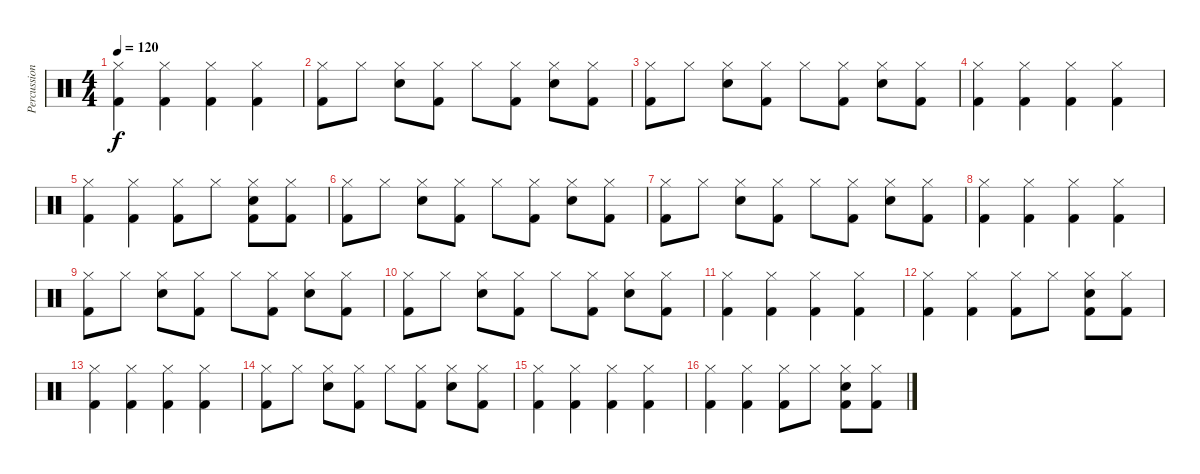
\track ("Percussion" "Percussion") {instrument percussion}
\staff {score}
\articulation defaults
\ts (4 4)
\tempo 120
\clef neutral
\ks c
("Kick (hit) 2" "Hi-Hat (closed)").4{dy f} ("Kick (hit) 2" "Hi-Hat (closed)").4 ("Kick (hit) 2" "Hi-Hat (closed)").4 ("Kick (hit) 2" "Hi-Hat (closed)").4 |
("Kick (hit) 2" "Hi-Hat (closed)").8 "Hi-Hat (closed)".8 ("Snare (hit) 2" "Hi-Hat (closed)").8 ("Kick (hit) 2" "Hi-Hat (closed)").8 "Hi-Hat (closed)".8 ("Kick (hit) 2" "Hi-Hat (closed)").8 ("Snare (hit) 2" "Hi-Hat (closed)").8 ("Kick (hit) 2" "Hi-Hat (closed)").8 |
("Kick (hit) 2" "Hi-Hat (closed)").8 "Hi-Hat (closed)".8 ("Snare (hit) 2" "Hi-Hat (closed)").8 ("Kick (hit) 2" "Hi-Hat (closed)").8 "Hi-Hat (closed)".8 ("Kick (hit) 2" "Hi-Hat (closed)").8 ("Snare (hit) 2" "Hi-Hat (closed)").8 ("Kick (hit) 2" "Hi-Hat (closed)").8 |
("Kick (hit) 2" "Hi-Hat (closed)").4 ("Kick (hit) 2" "Hi-Hat (closed)").4 ("Kick (hit) 2" "Hi-Hat (closed)").4 ("Kick (hit) 2" "Hi-Hat (closed)").4 |
("Kick (hit) 2" "Hi-Hat (closed)").4 ("Kick (hit) 2" "Hi-Hat (closed)").4 ("Kick (hit) 2" "Hi-Hat (closed)").8 "Hi-Hat (closed)".8 ("Kick (hit) 2" "Snare (hit) 2" "Hi-Hat (closed)").8 ("Kick (hit) 2" "Hi-Hat (closed)").8 |
("Kick (hit) 2" "Hi-Hat (closed)").8 "Hi-Hat (closed)".8 ("Snare (hit) 2" "Hi-Hat (closed)").8 ("Kick (hit) 2" "Hi-Hat (closed)").8 "Hi-Hat (closed)".8 ("Kick (hit) 2" "Hi-Hat (closed)").8 ("Snare (hit) 2" "Hi-Hat (closed)").8 ("Kick (hit) 2" "Hi-Hat (closed)").8 |
("Kick (hit) 2" "Hi-Hat (closed)").8 "Hi-Hat (closed)".8 ("Snare (hit) 2" "Hi-Hat (closed)").8 ("Kick (hit) 2" "Hi-Hat (closed)").8 "Hi-Hat (closed)".8 ("Kick (hit) 2" "Hi-Hat (closed)").8 ("Snare (hit) 2" "Hi-Hat (closed)").8 ("Kick (hit) 2" "Hi-Hat (closed)").8 |
("Kick (hit) 2" "Hi-Hat (closed)").4 ("Kick (hit) 2" "Hi-Hat (closed)").4 ("Kick (hit) 2" "Hi-Hat (closed)").4 ("Kick (hit) 2" "Hi-Hat (closed)").4 |
("Kick (hit) 2" "Hi-Hat (closed)").8 "Hi-Hat (closed)".8 ("Snare (hit) 2" "Hi-Hat (closed)").8 ("Kick (hit) 2" "Hi-Hat (closed)").8 "Hi-Hat (closed)".8 ("Kick (hit) 2" "Hi-Hat (closed)").8 ("Snare (hit) 2" "Hi-Hat (closed)").8 ("Kick (hit) 2" "Hi-Hat (closed)").8 |
("Kick (hit) 2" "Hi-Hat (closed)").8 "Hi-Hat (closed)".8 ("Snare (hit) 2" "Hi-Hat (closed)").8 ("Kick (hit) 2" "Hi-Hat (closed)").8 "Hi-Hat (closed)".8 ("Kick (hit) 2" "Hi-Hat (closed)").8 ("Snare (hit) 2" "Hi-Hat (closed)").8 ("Kick (hit) 2" "Hi-Hat (closed)").8 |
("Kick (hit) 2" "Hi-Hat (closed)").4 ("Kick (hit) 2" "Hi-Hat (closed)").4 ("Kick (hit) 2" "Hi-Hat (closed)").4 ("Kick (hit) 2" "Hi-Hat (closed)").4 |
("Kick (hit) 2" "Hi-Hat (closed)").4 ("Kick (hit) 2" "Hi-Hat (closed)").4 ("Kick (hit) 2" "Hi-Hat (closed)").8 "Hi-Hat (closed)".8 ("Kick (hit) 2" "Snare (hit) 2" "Hi-Hat (closed)").8 ("Kick (hit) 2" "Hi-Hat (closed)").8 |
("Kick (hit) 2" "Hi-Hat (closed)").4 ("Kick (hit) 2" "Hi-Hat (closed)").4 ("Kick (hit) 2" "Hi-Hat (closed)").4 ("Kick (hit) 2" "Hi-Hat (closed)").4 |
("Kick (hit) 2" "Hi-Hat (closed)").8 "Hi-Hat (closed)".8 ("Snare (hit) 2" "Hi-Hat (closed)").8 ("Kick (hit) 2" "Hi-Hat (closed)").8 "Hi-Hat (closed)".8 ("Kick (hit) 2" "Hi-Hat (closed)").8 ("Snare (hit) 2" "Hi-Hat (closed)").8 ("Kick (hit) 2" "Hi-Hat (closed)").8 |
("Kick (hit) 2" "Hi-Hat (closed)").4 ("Kick (hit) 2" "Hi-Hat (closed)").4 ("Kick (hit) 2" "Hi-Hat (closed)").4 ("Kick (hit) 2" "Hi-Hat (closed)").4 |
("Kick (hit) 2" "Hi-Hat (closed)").4 ("Kick (hit) 2" "Hi-Hat (closed)").4 ("Kick (hit) 2" "Hi-Hat (closed)").8 "Hi-Hat (closed)".8 ("Kick (hit) 2" "Snare (hit) 2" "Hi-Hat (closed)").8 ("Kick (hit) 2" "Hi-Hat (closed)").8
